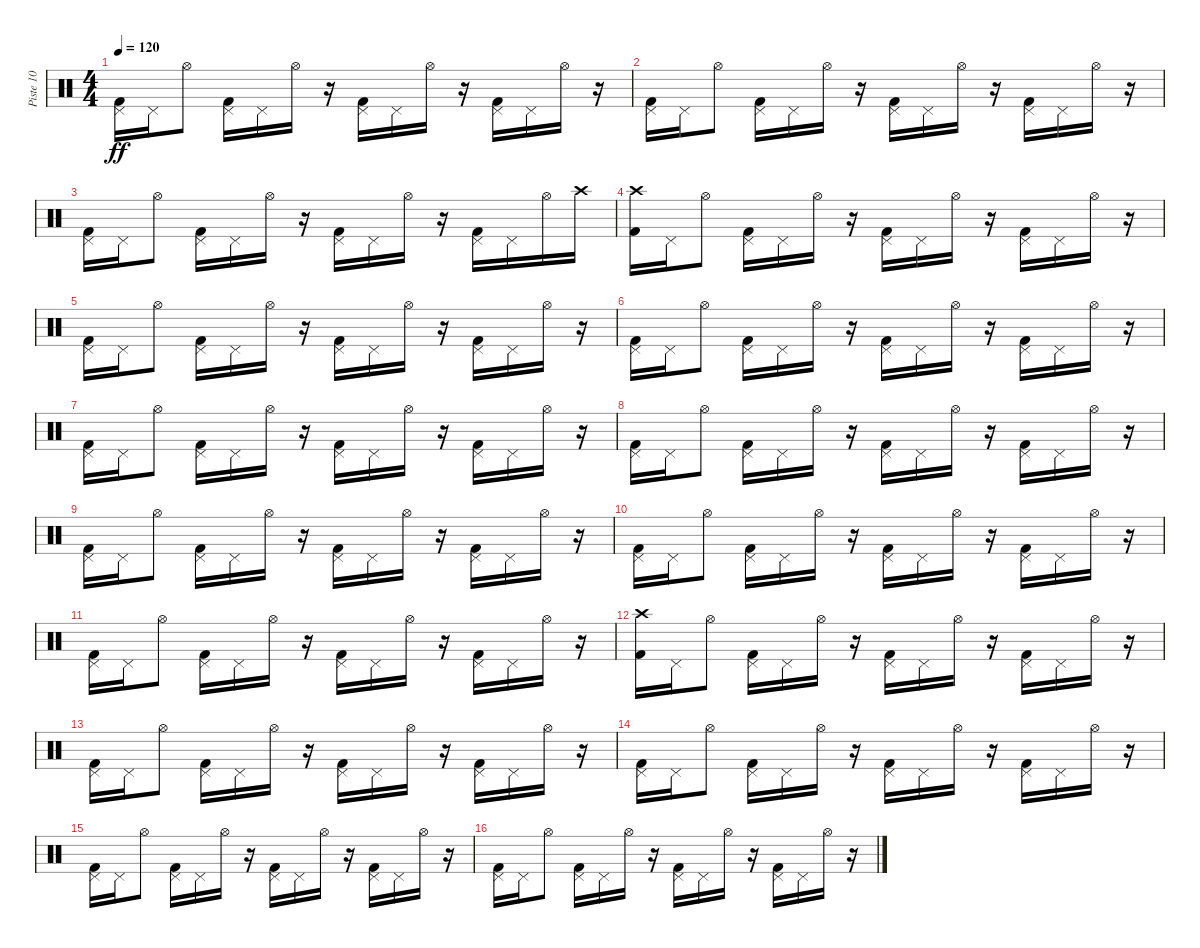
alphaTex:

\track ("Piste 10" "Piste 10") {instrument percussion}
\staff {score}
\articulation defaults
\ts (4 4)
\tempo 120
\clef neutral
\ks c
("Kick (hit) 2" "Pedal Hi-Hat (hit)").16{dy ff} "Pedal Hi-Hat (hit)".16 "Hi-Hat (open)".8 ("Kick (hit) 2" "Pedal Hi-Hat (hit)").16 "Pedal Hi-Hat (hit)".16 "Hi-Hat (open)".16 r.16 ("Kick (hit) 2" "Pedal Hi-Hat (hit)").16 "Pedal Hi-Hat (hit)".16 "Hi-Hat (open)".16 r.16 ("Kick (hit) 2" "Pedal Hi-Hat (hit)").16 "Pedal Hi-Hat (hit)".16 "Hi-Hat (open)".16 r.16 |
("Kick (hit) 2" "Pedal Hi-Hat (hit)").16 "Pedal Hi-Hat (hit)".16 "Hi-Hat (open)".8 ("Kick (hit) 2" "Pedal Hi-Hat (hit)").16 "Pedal Hi-Hat (hit)".16 "Hi-Hat (open)".16 r.16 ("Kick (hit) 2" "Pedal Hi-Hat (hit)").16 "Pedal Hi-Hat (hit)".16 "Hi-Hat (open)".16 r.16 ("Kick (hit) 2" "Pedal Hi-Hat (hit)").16 "Pedal Hi-Hat (hit)".16 "Hi-Hat (open)".16 r.16 |
("Kick (hit) 2" "Pedal Hi-Hat (hit)").16 "Pedal Hi-Hat (hit)".16 "Hi-Hat (open)".8 ("Kick (hit) 2" "Pedal Hi-Hat (hit)").16 "Pedal Hi-Hat (hit)".16 "Hi-Hat (open)".16 r.16 ("Kick (hit) 2" "Pedal Hi-Hat (hit)").16 "Pedal Hi-Hat (hit)".16 "Hi-Hat (open)".16 r.16 ("Kick (hit) 2" "Pedal Hi-Hat (hit)").16 "Pedal Hi-Hat (hit)".16 "Hi-Hat (open)".16 "Crash high (hit)".16 |
("Crash high (hit)" "Kick (hit) 2").16 "Pedal Hi-Hat (hit)".16 "Hi-Hat (open)".8 ("Kick (hit) 2" "Pedal Hi-Hat (hit)").16 "Pedal Hi-Hat (hit)".16 "Hi-Hat (open)".16 r.16 ("Kick (hit) 2" "Pedal Hi-Hat (hit)").16 "Pedal Hi-Hat (hit)".16 "Hi-Hat (open)".16 r.16 ("Kick (hit) 2" "Pedal Hi-Hat (hit)").16 "Pedal Hi-Hat (hit)".16 "Hi-Hat (open)".16 r.16 |
("Kick (hit) 2" "Pedal Hi-Hat (hit)").16 "Pedal Hi-Hat (hit)".16 "Hi-Hat (open)".8 ("Kick (hit) 2" "Pedal Hi-Hat (hit)").16 "Pedal Hi-Hat (hit)".16 "Hi-Hat (open)".16 r.16 ("Kick (hit) 2" "Pedal Hi-Hat (hit)").16 "Pedal Hi-Hat (hit)".16 "Hi-Hat (open)".16 r.16 ("Kick (hit) 2" "Pedal Hi-Hat (hit)").16 "Pedal Hi-Hat (hit)".16 "Hi-Hat (open)".16 r.16 |
("Kick (hit) 2" "Pedal Hi-Hat (hit)").16 "Pedal Hi-Hat (hit)".16 "Hi-Hat (open)".8 ("Kick (hit) 2" "Pedal Hi-Hat (hit)").16 "Pedal Hi-Hat (hit)".16 "Hi-Hat (open)".16 r.16 ("Kick (hit) 2" "Pedal Hi-Hat (hit)").16 "Pedal Hi-Hat (hit)".16 "Hi-Hat (open)".16 r.16 ("Kick (hit) 2" "Pedal Hi-Hat (hit)").16 "Pedal Hi-Hat (hit)".16 "Hi-Hat (open)".16 r.16 |
("Kick (hit) 2" "Pedal Hi-Hat (hit)").16 "Pedal Hi-Hat (hit)".16 "Hi-Hat (open)".8 ("Kick (hit) 2" "Pedal Hi-Hat (hit)").16 "Pedal Hi-Hat (hit)".16 "Hi-Hat (open)".16 r.16 ("Kick (hit) 2" "Pedal Hi-Hat (hit)").16 "Pedal Hi-Hat (hit)".16 "Hi-Hat (open)".16 r.16 ("Kick (hit) 2" "Pedal Hi-Hat (hit)").16 "Pedal Hi-Hat (hit)".16 "Hi-Hat (open)".16 r.16 |
("Kick (hit) 2" "Pedal Hi-Hat (hit)").16 "Pedal Hi-Hat (hit)".16 "Hi-Hat (open)".8 ("Kick (hit) 2" "Pedal Hi-Hat (hit)").16 "Pedal Hi-Hat (hit)".16 "Hi-Hat (open)".16 r.16 ("Kick (hit) 2" "Pedal Hi-Hat (hit)").16 "Pedal Hi-Hat (hit)".16 "Hi-Hat (open)".16 r.16 ("Kick (hit) 2" "Pedal Hi-Hat (hit)").16 "Pedal Hi-Hat (hit)".16 "Hi-Hat (open)".16 r.16 |
("Kick (hit) 2" "Pedal Hi-Hat (hit)").16 "Pedal Hi-Hat (hit)".16 "Hi-Hat (open)".8 ("Kick (hit) 2" "Pedal Hi-Hat (hit)").16 "Pedal Hi-Hat (hit)".16 "Hi-Hat (open)".16 r.16 ("Kick (hit) 2" "Pedal Hi-Hat (hit)").16 "Pedal Hi-Hat (hit)".16 "Hi-Hat (open)".16 r.16 ("Kick (hit) 2" "Pedal Hi-Hat (hit)").16 "Pedal Hi-Hat (hit)".16 "Hi-Hat (open)".16 r.16 |
("Kick (hit) 2" "Pedal Hi-Hat (hit)").16 "Pedal Hi-Hat (hit)".16 "Hi-Hat (open)".8 ("Kick (hit) 2" "Pedal Hi-Hat (hit)").16 "Pedal Hi-Hat (hit)".16 "Hi-Hat (open)".16 r.16 ("Kick (hit) 2" "Pedal Hi-Hat (hit)").16 "Pedal Hi-Hat (hit)".16 "Hi-Hat (open)".16 r.16 ("Kick (hit) 2" "Pedal Hi-Hat (hit)").16 "Pedal Hi-Hat (hit)".16 "Hi-Hat (open)".16 r.16 |
("Kick (hit) 2" "Pedal Hi-Hat (hit)").16 "Pedal Hi-Hat (hit)".16 "Hi-Hat (open)".8 ("Kick (hit) 2" "Pedal Hi-Hat (hit)").16 "Pedal Hi-Hat (hit)".16 "Hi-Hat (open)".16 r.16 ("Kick (hit) 2" "Pedal Hi-Hat (hit)").16 "Pedal Hi-Hat (hit)".16 "Hi-Hat (open)".16 r.16 ("Kick (hit) 2" "Pedal Hi-Hat (hit)").16 "Pedal Hi-Hat (hit)".16 "Hi-Hat (open)".16 r.16 |
("Crash high (hit)" "Kick (hit) 2").16 "Pedal Hi-Hat (hit)".16 "Hi-Hat (open)".8 ("Kick (hit) 2" "Pedal Hi-Hat (hit)").16 "Pedal Hi-Hat (hit)".16 "Hi-Hat (open)".16 r.16 ("Kick (hit) 2" "Pedal Hi-Hat (hit)").16 "Pedal Hi-Hat (hit)".16 "Hi-Hat (open)".16 r.16 ("Kick (hit) 2" "Pedal Hi-Hat (hit)").16 "Pedal Hi-Hat (hit)".16 "Hi-Hat (open)".16 r.16 |
("Kick (hit) 2" "Pedal Hi-Hat (hit)").16 "Pedal Hi-Hat (hit)".16 "Hi-Hat (open)".8 ("Kick (hit) 2" "Pedal Hi-Hat (hit)").16 "Pedal Hi-Hat (hit)".16 "Hi-Hat (open)".16 r.16 ("Kick (hit) 2" "Pedal Hi-Hat (hit)").16 "Pedal Hi-Hat (hit)".16 "Hi-Hat (open)".16 r.16 ("Kick (hit) 2" "Pedal Hi-Hat (hit)").16 "Pedal Hi-Hat (hit)".16 "Hi-Hat (open)".16 r.16 |
("Kick (hit) 2" "Pedal Hi-Hat (hit)").16 "Pedal Hi-Hat (hit)".16 "Hi-Hat (open)".8 ("Kick (hit) 2" "Pedal Hi-Hat (hit)").16 "Pedal Hi-Hat (hit)".16 "Hi-Hat (open)".16 r.16 ("Kick (hit) 2" "Pedal Hi-Hat (hit)").16 "Pedal Hi-Hat (hit)".16 "Hi-Hat (open)".16 r.16 ("Kick (hit) 2" "Pedal Hi-Hat (hit)").16 "Pedal Hi-Hat (hit)".16 "Hi-Hat (open)".16 r.16 |
("Kick (hit) 2" "Pedal Hi-Hat (hit)").16 "Pedal Hi-Hat (hit)".16 "Hi-Hat (open)".8 ("Kick (hit) 2" "Pedal Hi-Hat (hit)").16 "Pedal Hi-Hat (hit)".16 "Hi-Hat (open)".16 r.16 ("Kick (hit) 2" "Pedal Hi-Hat (hit)").16 "Pedal Hi-Hat (hit)".16 "Hi-Hat (open)".16 r.16 ("Kick (hit) 2" "Pedal Hi-Hat (hit)").16 "Pedal Hi-Hat (hit)".16 "Hi-Hat (open)".16 r.16 |
("Kick (hit) 2" "Pedal Hi-Hat (hit)").16 "Pedal Hi-Hat (hit)".16 "Hi-Hat (open)".8 ("Kick (hit) 2" "Pedal Hi-Hat (hit)").16 "Pedal Hi-Hat (hit)".16 "Hi-Hat (open)".16 r.16 ("Kick (hit) 2" "Pedal Hi-Hat (hit)").16 "Pedal Hi-Hat (hit)".16 "Hi-Hat (open)".16 r.16 ("Kick (hit) 2" "Pedal Hi-Hat (hit)").16 "Pedal Hi-Hat (hit)".16 "Hi-Hat (open)".16 r.16
